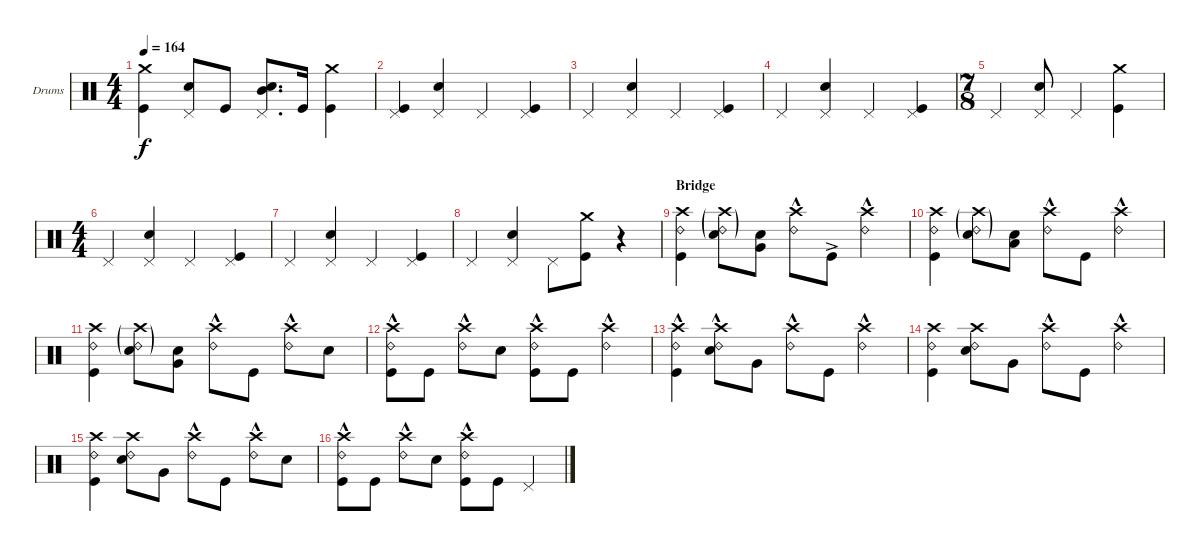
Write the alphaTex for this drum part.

\defaultSystemsLayout 4
\bracketExtendMode groupsimilarinstruments
\firstSystemTrackNameOrientation horizontal
\otherSystemsTrackNameOrientation horizontal
\track ("Drumkit" "Drums") {instrument percussion}
\staff {score}
\articulation defaults
\ts (4 4)
\tempo 164
\clef neutral
\ks c
("Kick (hit)" "Crash medium (hit)").4{dy f} ("Pedal Hi-Hat (hit)" "Snare (hit) 2").8 "Kick (hit)".8 ("Pedal Hi-Hat (hit)" "Snare (hit) 2" "Mid Tom (hit)").8{d} "Kick (hit)".16 ("Crash medium (hit)" "Kick (hit)").4 |
("Pedal Hi-Hat (hit)" "Kick (hit)").4 ("Pedal Hi-Hat (hit)" "Snare (hit) 2").4 "Pedal Hi-Hat (hit)".4 ("Kick (hit)" "Pedal Hi-Hat (hit)").4 |
"Pedal Hi-Hat (hit)".4 ("Snare (hit) 2" "Pedal Hi-Hat (hit)").4 "Pedal Hi-Hat (hit)".4 ("Kick (hit)" "Pedal Hi-Hat (hit)").4 |
"Pedal Hi-Hat (hit)".4 ("Snare (hit) 2" "Pedal Hi-Hat (hit)").4 "Pedal Hi-Hat (hit)".4 ("Kick (hit)" "Pedal Hi-Hat (hit)").4 |
\ts (7 8)
"Pedal Hi-Hat (hit)".4 ("Snare (hit) 2" "Pedal Hi-Hat (hit)").8 "Pedal Hi-Hat (hit)".4 ("Crash medium (hit)" "Kick (hit)").4 |
\ts (4 4)
"Pedal Hi-Hat (hit)".4 ("Pedal Hi-Hat (hit)" "Snare (hit) 2").4 "Pedal Hi-Hat (hit)".4 ("Kick (hit)" "Pedal Hi-Hat (hit)").4 |
"Pedal Hi-Hat (hit)".4 ("Snare (hit) 2" "Pedal Hi-Hat (hit)").4 "Pedal Hi-Hat (hit)".4 ("Pedal Hi-Hat (hit)" "Kick (hit)").4 |
"Pedal Hi-Hat (hit)".4 ("Pedal Hi-Hat (hit)" "Snare (hit) 2").4 "Pedal Hi-Hat (hit)".8 ("Crash medium (hit)" "Kick (hit)").8 r.4 |
\section ("" "Bridge")
("Kick (hit)" "Ride (bell) 2" "Crash high (hit)").4 ("Snare (hit) 2"{g} "Ride (bell) 2"{g} "Crash high (hit)"{g}).8 ("Very Low Tom (hit)" "Snare (hit) 2").8 ("Ride (bell) 2"{hac} "Crash high (hit)"{hac}).8 "Kick (hit)"{ac}.8 ("Ride (bell) 2"{hac} "Crash high (hit)"{hac}).4 |
("Kick (hit)" "Ride (bell) 2" "Crash high (hit)").4 ("Snare (hit) 2"{g} "Ride (bell) 2"{g} "Crash high (hit)"{g}).8 ("Low Tom (hit)" "Snare (hit) 2").8 ("Ride (bell) 2"{hac} "Crash high (hit)"{hac}).8 "Kick (hit)".8 ("Ride (bell) 2"{hac} "Crash high (hit)"{hac}).4 |
("Kick (hit)" "Ride (bell) 2" "Crash high (hit)").4 ("Snare (hit) 2"{g} "Ride (bell) 2"{g} "Crash high (hit)"{g}).8 ("Very Low Tom (hit)" "Snare (hit) 2").8 ("Ride (bell) 2"{hac} "Crash high (hit)"{hac}).8 "Kick (hit)".8 ("Ride (bell) 2"{hac} "Crash high (hit)"{hac}).8 "Snare (hit) 2".8 |
("Ride (bell) 2"{hac} "Kick (hit)"{hac} "Crash high (hit)"{hac}).8 "Kick (hit)".8 ("Ride (bell) 2"{hac} "Crash high (hit)"{hac}).8 "Snare (hit) 2".8 ("Ride (bell) 2"{hac} "Kick (hit)"{hac} "Crash high (hit)"{hac}).8 "Kick (hit)".8 ("Ride (bell) 2"{hac} "Crash high (hit)"{hac}).4 |
("Ride (bell) 2"{hac} "Kick (hit)"{hac} "Crash high (hit)"{hac}).4 ("Ride (bell) 2"{hac} "Snare (hit) 2"{hac} "Crash high (hit)"{hac}).8 "Very Low Tom (hit)".8 ("Ride (bell) 2"{hac} "Crash high (hit)"{hac}).8 "Kick (hit)".8 ("Ride (bell) 2"{hac} "Crash high (hit)"{hac}).4 |
("Kick (hit)" "Ride (bell) 2" "Crash high (hit)").4 ("Snare (hit) 2" "Ride (bell) 2" "Crash high (hit)").8 "Very Low Tom (hit)".8 ("Ride (bell) 2"{hac} "Crash high (hit)"{hac}).8 "Kick (hit)".8 ("Ride (bell) 2"{hac} "Crash high (hit)"{hac}).4 |
("Kick (hit)" "Ride (bell) 2" "Crash high (hit)").4 ("Snare (hit) 2" "Ride (bell) 2" "Crash high (hit)").8 "Very Low Tom (hit)".8 ("Ride (bell) 2"{hac} "Crash high (hit)"{hac}).8 "Kick (hit)".8 ("Ride (bell) 2"{hac} "Crash high (hit)"{hac}).8 "Snare (hit) 2".8 |
("Ride (bell) 2"{hac} "Kick (hit)"{hac} "Crash high (hit)"{hac}).8 "Kick (hit)".8 ("Ride (bell) 2"{hac} "Crash high (hit)"{hac}).8 "Snare (hit) 2".8 ("Ride (bell) 2"{hac} "Kick (hit)"{hac} "Crash high (hit)"{hac}).8 "Kick (hit)".8 "Pedal Hi-Hat (hit)".4
